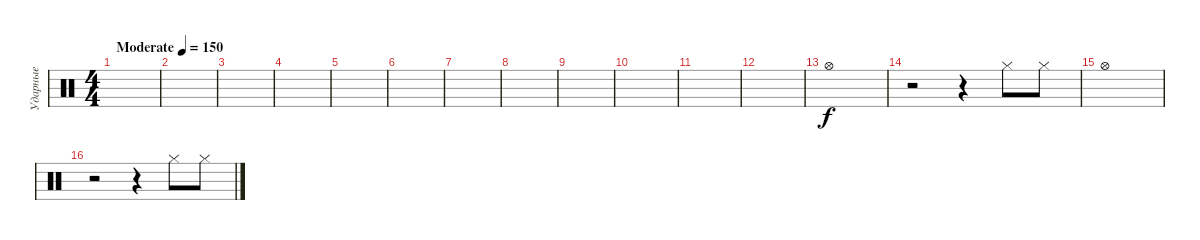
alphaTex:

\track ("Ударные" "Ударные") {instrument percussion}
\staff {score}
\articulation defaults
\ts (4 4)
\tempo (150 "Moderate")
\clef neutral
\ks c
|
|
|
|
|
|
|
|
|
|
|
|
"Hi-Hat (open)".1 |
r.2 r.4 "Hi-Hat (closed)".8 "Hi-Hat (closed)".8 |
"Hi-Hat (open)".1 |
r.2 r.4 "Hi-Hat (closed)".8 "Hi-Hat (closed)".8
